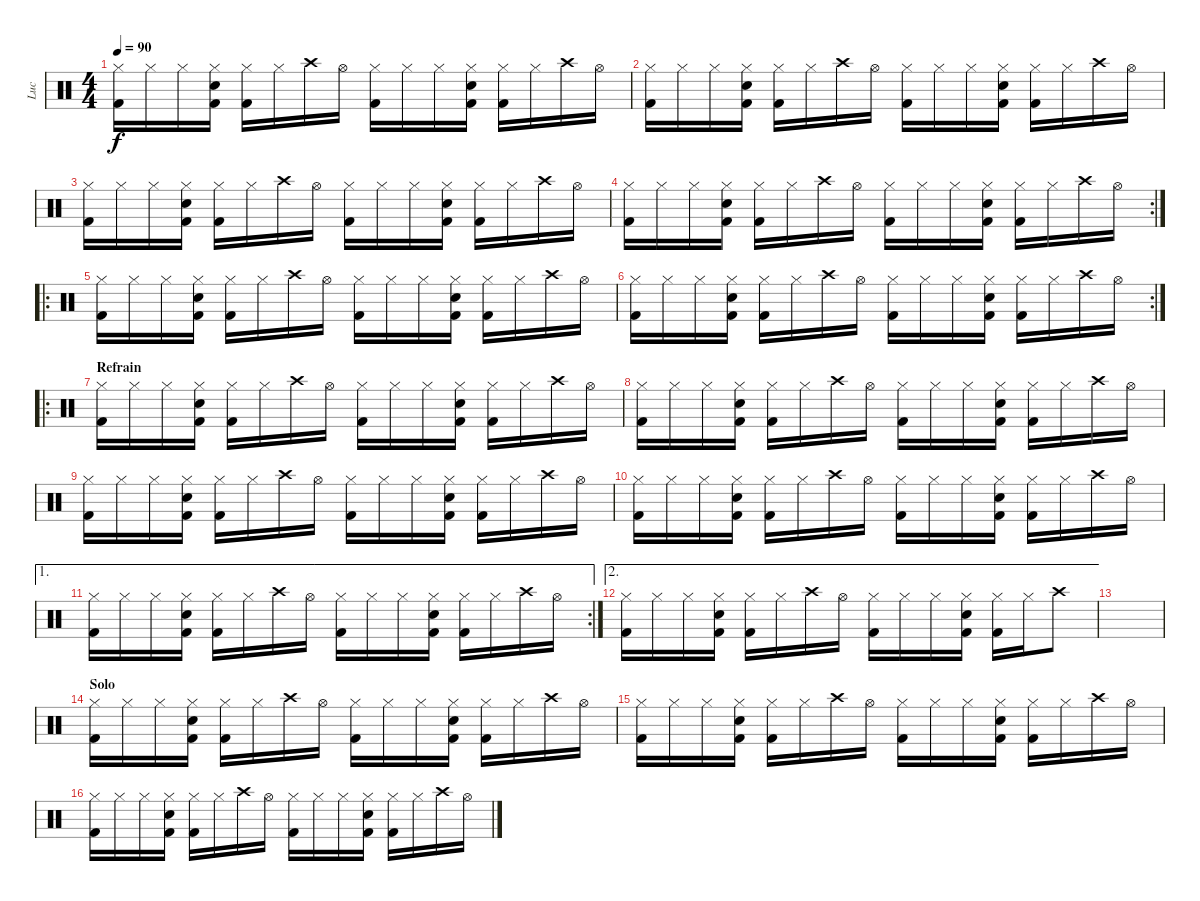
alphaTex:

\track ("Luc" "Luc") {instrument percussion}
\staff {score}
\articulation defaults
\ts (4 4)
\tempo 90
\clef neutral
\ks c
("Hi-Hat (closed)" "Kick (hit) 2").16{dy f} "Hi-Hat (closed)".16 "Hi-Hat (closed)".16 ("Hi-Hat (closed)" "Snare (hit) 2" "Kick (hit) 2").16 ("Hi-Hat (closed)" "Kick (hit) 2").16 "Hi-Hat (closed)".16 "Crash high (hit)".16 "Hi-Hat (open)".16 ("Hi-Hat (closed)" "Kick (hit) 2").16 "Hi-Hat (closed)".16 "Hi-Hat (closed)".16 ("Hi-Hat (closed)" "Snare (hit) 2" "Kick (hit) 2").16 ("Hi-Hat (closed)" "Kick (hit) 2").16 "Hi-Hat (closed)".16 "Crash high (hit)".16 "Hi-Hat (open)".16 |
("Hi-Hat (closed)" "Kick (hit) 2").16 "Hi-Hat (closed)".16 "Hi-Hat (closed)".16 ("Hi-Hat (closed)" "Snare (hit) 2" "Kick (hit) 2").16 ("Hi-Hat (closed)" "Kick (hit) 2").16 "Hi-Hat (closed)".16 "Crash high (hit)".16 "Hi-Hat (open)".16 ("Hi-Hat (closed)" "Kick (hit) 2").16 "Hi-Hat (closed)".16 "Hi-Hat (closed)".16 ("Hi-Hat (closed)" "Snare (hit) 2" "Kick (hit) 2").16 ("Hi-Hat (closed)" "Kick (hit) 2").16 "Hi-Hat (closed)".16 "Crash high (hit)".16 "Hi-Hat (open)".16 |
("Hi-Hat (closed)" "Kick (hit) 2").16 "Hi-Hat (closed)".16 "Hi-Hat (closed)".16 ("Hi-Hat (closed)" "Snare (hit) 2" "Kick (hit) 2").16 ("Hi-Hat (closed)" "Kick (hit) 2").16 "Hi-Hat (closed)".16 "Crash high (hit)".16 "Hi-Hat (open)".16 ("Hi-Hat (closed)" "Kick (hit) 2").16 "Hi-Hat (closed)".16 "Hi-Hat (closed)".16 ("Hi-Hat (closed)" "Snare (hit) 2" "Kick (hit) 2").16 ("Hi-Hat (closed)" "Kick (hit) 2").16 "Hi-Hat (closed)".16 "Crash high (hit)".16 "Hi-Hat (open)".16 |
\rc 2
("Hi-Hat (closed)" "Kick (hit) 2").16 "Hi-Hat (closed)".16 "Hi-Hat (closed)".16 ("Hi-Hat (closed)" "Snare (hit) 2" "Kick (hit) 2").16 ("Hi-Hat (closed)" "Kick (hit) 2").16 "Hi-Hat (closed)".16 "Crash high (hit)".16 "Hi-Hat (open)".16 ("Hi-Hat (closed)" "Kick (hit) 2").16 "Hi-Hat (closed)".16 "Hi-Hat (closed)".16 ("Hi-Hat (closed)" "Snare (hit) 2" "Kick (hit) 2").16 ("Hi-Hat (closed)" "Kick (hit) 2").16 "Hi-Hat (closed)".16 "Crash high (hit)".16 "Hi-Hat (open)".16 |
\ro
("Hi-Hat (closed)" "Kick (hit) 2").16 "Hi-Hat (closed)".16 "Hi-Hat (closed)".16 ("Hi-Hat (closed)" "Snare (hit) 2" "Kick (hit) 2").16 ("Hi-Hat (closed)" "Kick (hit) 2").16 "Hi-Hat (closed)".16 "Crash high (hit)".16 "Hi-Hat (open)".16 ("Hi-Hat (closed)" "Kick (hit) 2").16 "Hi-Hat (closed)".16 "Hi-Hat (closed)".16 ("Hi-Hat (closed)" "Snare (hit) 2" "Kick (hit) 2").16 ("Hi-Hat (closed)" "Kick (hit) 2").16 "Hi-Hat (closed)".16 "Crash high (hit)".16 "Hi-Hat (open)".16 |
\rc 2
("Hi-Hat (closed)" "Kick (hit) 2").16 "Hi-Hat (closed)".16 "Hi-Hat (closed)".16 ("Hi-Hat (closed)" "Snare (hit) 2" "Kick (hit) 2").16 ("Hi-Hat (closed)" "Kick (hit) 2").16 "Hi-Hat (closed)".16 "Crash high (hit)".16 "Hi-Hat (open)".16 ("Hi-Hat (closed)" "Kick (hit) 2").16 "Hi-Hat (closed)".16 "Hi-Hat (closed)".16 ("Hi-Hat (closed)" "Snare (hit) 2" "Kick (hit) 2").16 ("Hi-Hat (closed)" "Kick (hit) 2").16 "Hi-Hat (closed)".16 "Crash high (hit)".16 "Hi-Hat (open)".16 |
\ro
\section ("" "Refrain")
("Hi-Hat (closed)" "Kick (hit) 2").16 "Hi-Hat (closed)".16 "Hi-Hat (closed)".16 ("Hi-Hat (closed)" "Snare (hit) 2" "Kick (hit) 2").16 ("Hi-Hat (closed)" "Kick (hit) 2").16 "Hi-Hat (closed)".16 "Crash high (hit)".16 "Hi-Hat (open)".16 ("Hi-Hat (closed)" "Kick (hit) 2").16 "Hi-Hat (closed)".16 "Hi-Hat (closed)".16 ("Hi-Hat (closed)" "Snare (hit) 2" "Kick (hit) 2").16 ("Hi-Hat (closed)" "Kick (hit) 2").16 "Hi-Hat (closed)".16 "Crash high (hit)".16 "Hi-Hat (open)".16 |
("Hi-Hat (closed)" "Kick (hit) 2").16 "Hi-Hat (closed)".16 "Hi-Hat (closed)".16 ("Hi-Hat (closed)" "Snare (hit) 2" "Kick (hit) 2").16 ("Hi-Hat (closed)" "Kick (hit) 2").16 "Hi-Hat (closed)".16 "Crash high (hit)".16 "Hi-Hat (open)".16 ("Hi-Hat (closed)" "Kick (hit) 2").16 "Hi-Hat (closed)".16 "Hi-Hat (closed)".16 ("Hi-Hat (closed)" "Snare (hit) 2" "Kick (hit) 2").16 ("Hi-Hat (closed)" "Kick (hit) 2").16 "Hi-Hat (closed)".16 "Crash high (hit)".16 "Hi-Hat (open)".16 |
("Hi-Hat (closed)" "Kick (hit) 2").16 "Hi-Hat (closed)".16 "Hi-Hat (closed)".16 ("Hi-Hat (closed)" "Snare (hit) 2" "Kick (hit) 2").16 ("Hi-Hat (closed)" "Kick (hit) 2").16 "Hi-Hat (closed)".16 "Crash high (hit)".16 "Hi-Hat (open)".16 ("Hi-Hat (closed)" "Kick (hit) 2").16 "Hi-Hat (closed)".16 "Hi-Hat (closed)".16 ("Hi-Hat (closed)" "Snare (hit) 2" "Kick (hit) 2").16 ("Hi-Hat (closed)" "Kick (hit) 2").16 "Hi-Hat (closed)".16 "Crash high (hit)".16 "Hi-Hat (open)".16 |
("Hi-Hat (closed)" "Kick (hit) 2").16 "Hi-Hat (closed)".16 "Hi-Hat (closed)".16 ("Hi-Hat (closed)" "Snare (hit) 2" "Kick (hit) 2").16 ("Hi-Hat (closed)" "Kick (hit) 2").16 "Hi-Hat (closed)".16 "Crash high (hit)".16 "Hi-Hat (open)".16 ("Hi-Hat (closed)" "Kick (hit) 2").16 "Hi-Hat (closed)".16 "Hi-Hat (closed)".16 ("Hi-Hat (closed)" "Snare (hit) 2" "Kick (hit) 2").16 ("Hi-Hat (closed)" "Kick (hit) 2").16 "Hi-Hat (closed)".16 "Crash high (hit)".16 "Hi-Hat (open)".16 |
\ae 1
\rc 2
("Hi-Hat (closed)" "Kick (hit) 2").16 "Hi-Hat (closed)".16 "Hi-Hat (closed)".16 ("Hi-Hat (closed)" "Snare (hit) 2" "Kick (hit) 2").16 ("Hi-Hat (closed)" "Kick (hit) 2").16 "Hi-Hat (closed)".16 "Crash high (hit)".16 "Hi-Hat (open)".16 ("Hi-Hat (closed)" "Kick (hit) 2").16 "Hi-Hat (closed)".16 "Hi-Hat (closed)".16 ("Hi-Hat (closed)" "Snare (hit) 2" "Kick (hit) 2").16 ("Hi-Hat (closed)" "Kick (hit) 2").16 "Hi-Hat (closed)".16 "Crash high (hit)".16 "Hi-Hat (open)".16 |
\ae 2
("Hi-Hat (closed)" "Kick (hit) 2").16 "Hi-Hat (closed)".16 "Hi-Hat (closed)".16 ("Hi-Hat (closed)" "Snare (hit) 2" "Kick (hit) 2").16 ("Hi-Hat (closed)" "Kick (hit) 2").16 "Hi-Hat (closed)".16 "Crash high (hit)".16 "Hi-Hat (open)".16 ("Hi-Hat (closed)" "Kick (hit) 2").16 "Hi-Hat (closed)".16 "Hi-Hat (closed)".16 ("Hi-Hat (closed)" "Snare (hit) 2" "Kick (hit) 2").16 ("Hi-Hat (closed)" "Kick (hit) 2").16 "Hi-Hat (closed)".16 "Crash high (hit)".8 |
|
\section ("" "Solo")
("Hi-Hat (closed)" "Kick (hit) 2").16 "Hi-Hat (closed)".16 "Hi-Hat (closed)".16 ("Hi-Hat (closed)" "Snare (hit) 2" "Kick (hit) 2").16 ("Hi-Hat (closed)" "Kick (hit) 2").16 "Hi-Hat (closed)".16 "Crash high (hit)".16 "Hi-Hat (open)".16 ("Hi-Hat (closed)" "Kick (hit) 2").16 "Hi-Hat (closed)".16 "Hi-Hat (closed)".16 ("Hi-Hat (closed)" "Snare (hit) 2" "Kick (hit) 2").16 ("Hi-Hat (closed)" "Kick (hit) 2").16 "Hi-Hat (closed)".16 "Crash high (hit)".16 "Hi-Hat (open)".16 |
("Hi-Hat (closed)" "Kick (hit) 2").16 "Hi-Hat (closed)".16 "Hi-Hat (closed)".16 ("Hi-Hat (closed)" "Snare (hit) 2" "Kick (hit) 2").16 ("Hi-Hat (closed)" "Kick (hit) 2").16 "Hi-Hat (closed)".16 "Crash high (hit)".16 "Hi-Hat (open)".16 ("Hi-Hat (closed)" "Kick (hit) 2").16 "Hi-Hat (closed)".16 "Hi-Hat (closed)".16 ("Hi-Hat (closed)" "Snare (hit) 2" "Kick (hit) 2").16 ("Hi-Hat (closed)" "Kick (hit) 2").16 "Hi-Hat (closed)".16 "Crash high (hit)".16 "Hi-Hat (open)".16 |
("Hi-Hat (closed)" "Kick (hit) 2").16 "Hi-Hat (closed)".16 "Hi-Hat (closed)".16 ("Hi-Hat (closed)" "Snare (hit) 2" "Kick (hit) 2").16 ("Hi-Hat (closed)" "Kick (hit) 2").16 "Hi-Hat (closed)".16 "Crash high (hit)".16 "Hi-Hat (open)".16 ("Hi-Hat (closed)" "Kick (hit) 2").16 "Hi-Hat (closed)".16 "Hi-Hat (closed)".16 ("Hi-Hat (closed)" "Snare (hit) 2" "Kick (hit) 2").16 ("Hi-Hat (closed)" "Kick (hit) 2").16 "Hi-Hat (closed)".16 "Crash high (hit)".16 "Hi-Hat (open)".16
